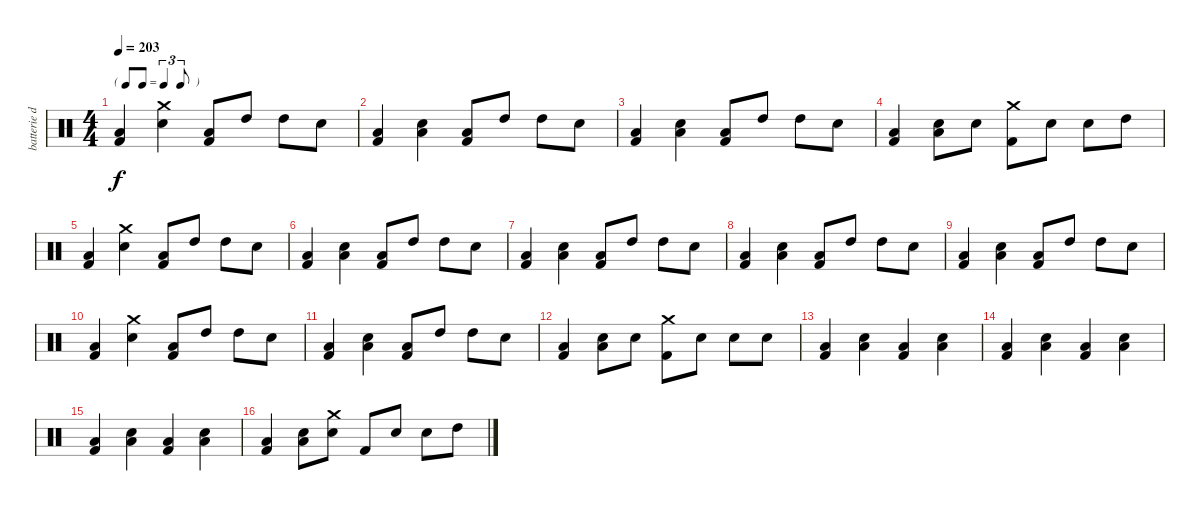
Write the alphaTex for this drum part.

\track ("batterie dub" "batterie d") {instrument percussion}
\staff {score}
\articulation defaults
\ts (4 4)
\tf triplet8th
\tempo 203
\clef neutral
\ks c
("Low Tom (hit)" "Kick (hit) 2").4{dy f} ("Crash medium (hit)" "Electric Snare (hit)").4 ("Low Tom (hit)" "Kick (hit) 2").8 "High Tom (hit)".8 "High Tom (hit)".8 "Electric Snare (hit)".8 |
("Low Tom (hit)" "Kick (hit) 2").4 ("Low Tom (hit)" "Electric Snare (hit)").4 ("Low Tom (hit)" "Kick (hit) 2").8 "High Tom (hit)".8 "High Tom (hit)".8 "Electric Snare (hit)".8 |
("Low Tom (hit)" "Kick (hit) 2").4 ("Low Tom (hit)" "Electric Snare (hit)").4 ("Low Tom (hit)" "Kick (hit) 2").8 "High Tom (hit)".8 "High Tom (hit)".8 "Electric Snare (hit)".8 |
("Low Tom (hit)" "Kick (hit) 2").4 ("Low Tom (hit)" "Electric Snare (hit)").8 "Electric Snare (hit)".8 ("Crash medium (hit)" "Kick (hit) 2").8 "Electric Snare (hit)".8 "Electric Snare (hit)".8 "High Tom (hit)".8 |
("Low Tom (hit)" "Kick (hit) 2").4 ("Crash medium (hit)" "Electric Snare (hit)").4 ("Low Tom (hit)" "Kick (hit) 2").8 "High Tom (hit)".8 "High Tom (hit)".8 "Electric Snare (hit)".8 |
("Low Tom (hit)" "Kick (hit) 2").4 ("Low Tom (hit)" "Electric Snare (hit)").4 ("Low Tom (hit)" "Kick (hit) 2").8 "High Tom (hit)".8 "High Tom (hit)".8 "Electric Snare (hit)".8 |
("Low Tom (hit)" "Kick (hit) 2").4 ("Low Tom (hit)" "Electric Snare (hit)").4 ("Low Tom (hit)" "Kick (hit) 2").8 "High Tom (hit)".8 "High Tom (hit)".8 "Electric Snare (hit)".8 |
("Low Tom (hit)" "Kick (hit) 2").4 ("Low Tom (hit)" "Electric Snare (hit)").4 ("Low Tom (hit)" "Kick (hit) 2").8 "High Tom (hit)".8 "High Tom (hit)".8 "Electric Snare (hit)".8 |
("Low Tom (hit)" "Kick (hit) 2").4 ("Low Tom (hit)" "Electric Snare (hit)").4 ("Low Tom (hit)" "Kick (hit) 2").8 "High Tom (hit)".8 "High Tom (hit)".8 "Electric Snare (hit)".8 |
("Low Tom (hit)" "Kick (hit) 2").4 ("Crash medium (hit)" "Electric Snare (hit)").4 ("Low Tom (hit)" "Kick (hit) 2").8 "High Tom (hit)".8 "High Tom (hit)".8 "Electric Snare (hit)".8 |
("Low Tom (hit)" "Kick (hit) 2").4 ("Low Tom (hit)" "Electric Snare (hit)").4 ("Low Tom (hit)" "Kick (hit) 2").8 "High Tom (hit)".8 "High Tom (hit)".8 "Electric Snare (hit)".8 |
("Low Tom (hit)" "Kick (hit) 2").4 ("Low Tom (hit)" "Electric Snare (hit)").8 "Electric Snare (hit)".8 ("Crash medium (hit)" "Kick (hit) 2").8 "Electric Snare (hit)".8 "Electric Snare (hit)".8 "Electric Snare (hit)".8 |
("Low Tom (hit)" "Kick (hit) 2").4 ("Low Tom (hit)" "Electric Snare (hit)").4 ("Low Tom (hit)" "Kick (hit) 2").4 ("Low Tom (hit)" "Electric Snare (hit)").4 |
("Low Tom (hit)" "Kick (hit) 2").4 ("Low Tom (hit)" "Electric Snare (hit)").4 ("Low Tom (hit)" "Kick (hit) 2").4 ("Low Tom (hit)" "Electric Snare (hit)").4 |
("Low Tom (hit)" "Kick (hit) 2").4 ("Low Tom (hit)" "Electric Snare (hit)").4 ("Low Tom (hit)" "Kick (hit) 2").4 ("Low Tom (hit)" "Electric Snare (hit)").4 |
("Low Tom (hit)" "Kick (hit) 2").4 ("Low Tom (hit)" "Electric Snare (hit)").8 ("Crash medium (hit)" "Electric Snare (hit)").8 "Kick (hit) 2".8 "Electric Snare (hit)".8 "Electric Snare (hit)".8 "High Tom (hit)".8
